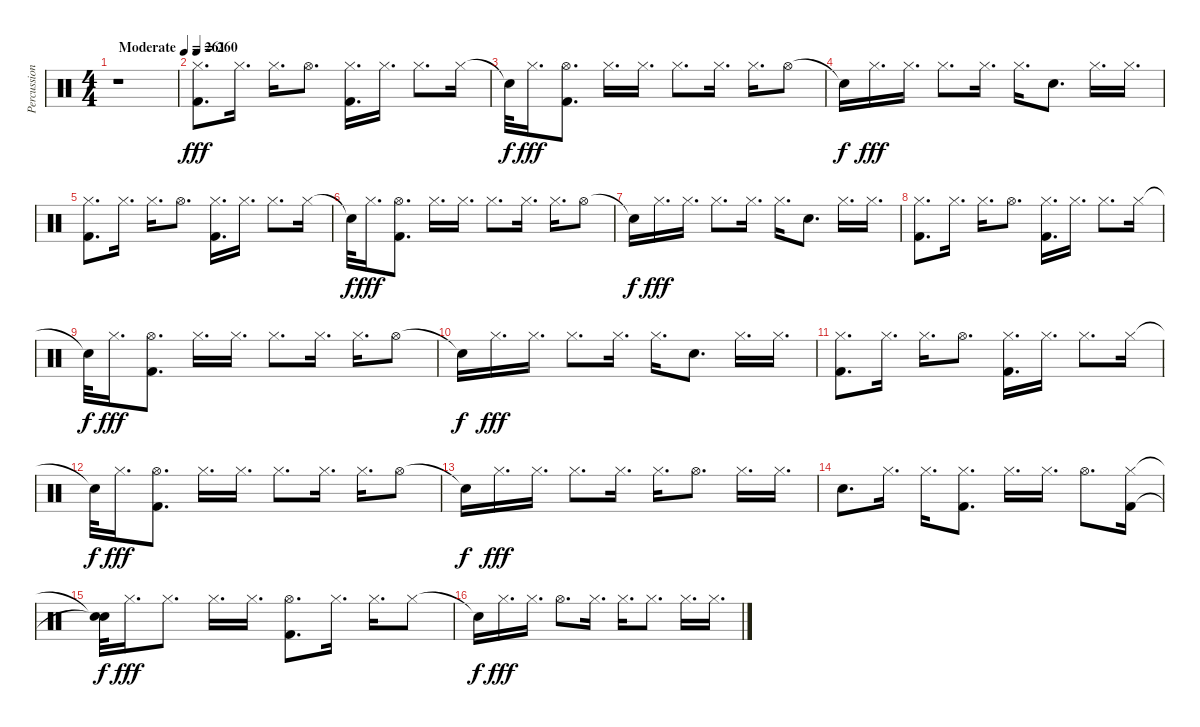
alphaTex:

\track ("Percussion" "Percussion") {instrument percussion}
\staff {score}
\articulation defaults
\ts (4 4)
\tempo (261 "Moderate")
\clef neutral
\ks c
r.1{dy fff} |
\tempo 260
("Hi-Hat (closed)" "Kick (hit) 2").8{d} "Hi-Hat (closed)".16{d} "Hi-Hat (closed)".16{d} "Hi-Hat (open)".8{d} ("Hi-Hat (closed)" "Kick (hit) 2").16{d} "Hi-Hat (closed)".16{d} "Hi-Hat (closed)".8{d} "Hi-Hat (closed)".16 |
"Snare (hit)"{t}.32{dy f} "Hi-Hat (closed)".16{d dy fff} ("Hi-Hat (open)" "Kick (hit) 2").8{d} "Hi-Hat (closed)".16{d} "Hi-Hat (closed)".16{d} "Hi-Hat (closed)".8{d} "Hi-Hat (closed)".16{d} "Hi-Hat (closed)".16{d} "Hi-Hat (open)".8 |
"Snare (hit)"{t}.16{dy f} "Hi-Hat (closed)".16{d dy fff} "Hi-Hat (closed)".16{d} "Hi-Hat (closed)".8{d} "Hi-Hat (closed)".16{d} "Hi-Hat (closed)".16{d} "Electric Snare (hit)".8{d} "Hi-Hat (closed)".16{d} "Hi-Hat (closed)".16{d} |
("Hi-Hat (closed)" "Kick (hit) 2").8{d} "Hi-Hat (closed)".16{d} "Hi-Hat (closed)".16{d} "Hi-Hat (open)".8{d} ("Hi-Hat (closed)" "Kick (hit) 2").16{d} "Hi-Hat (closed)".16{d} "Hi-Hat (closed)".8{d} "Hi-Hat (closed)".16 |
"Snare (hit)"{t}.32{dy f} "Hi-Hat (closed)".16{d dy fff} ("Hi-Hat (open)" "Kick (hit) 2").8{d} "Hi-Hat (closed)".16{d} "Hi-Hat (closed)".16{d} "Hi-Hat (closed)".8{d} "Hi-Hat (closed)".16{d} "Hi-Hat (closed)".16{d} "Hi-Hat (open)".8 |
"Snare (hit)"{t}.16{dy f} "Hi-Hat (closed)".16{d dy fff} "Hi-Hat (closed)".16{d} "Hi-Hat (closed)".8{d} "Hi-Hat (closed)".16{d} "Hi-Hat (closed)".16{d} "Electric Snare (hit)".8{d} "Hi-Hat (closed)".16{d} "Hi-Hat (closed)".16{d} |
("Hi-Hat (closed)" "Kick (hit) 2").8{d} "Hi-Hat (closed)".16{d} "Hi-Hat (closed)".16{d} "Hi-Hat (open)".8{d} ("Hi-Hat (closed)" "Kick (hit) 2").16{d} "Hi-Hat (closed)".16{d} "Hi-Hat (closed)".8{d} "Hi-Hat (closed)".16 |
"Snare (hit)"{t}.32{dy f} "Hi-Hat (closed)".16{d dy fff} ("Hi-Hat (open)" "Kick (hit) 2").8{d} "Hi-Hat (closed)".16{d} "Hi-Hat (closed)".16{d} "Hi-Hat (closed)".8{d} "Hi-Hat (closed)".16{d} "Hi-Hat (closed)".16{d} "Hi-Hat (open)".8 |
"Snare (hit)"{t}.16{dy f} "Hi-Hat (closed)".16{d dy fff} "Hi-Hat (closed)".16{d} "Hi-Hat (closed)".8{d} "Hi-Hat (closed)".16{d} "Hi-Hat (closed)".16{d} "Electric Snare (hit)".8{d} "Hi-Hat (closed)".16{d} "Hi-Hat (closed)".16{d} |
("Hi-Hat (closed)" "Kick (hit) 2").8{d} "Hi-Hat (closed)".16{d} "Hi-Hat (closed)".16{d} "Hi-Hat (open)".8{d} ("Hi-Hat (closed)" "Kick (hit) 2").16{d} "Hi-Hat (closed)".16{d} "Hi-Hat (closed)".8{d} "Hi-Hat (closed)".16 |
"Snare (hit)"{t}.32{dy f} "Hi-Hat (closed)".16{d dy fff} ("Hi-Hat (open)" "Kick (hit) 2").8{d} "Hi-Hat (closed)".16{d} "Hi-Hat (closed)".16{d} "Hi-Hat (closed)".8{d} "Hi-Hat (closed)".16{d} "Hi-Hat (closed)".16{d} "Hi-Hat (open)".8 |
"Snare (hit)"{t}.16{dy f} "Hi-Hat (closed)".16{d dy fff} "Hi-Hat (closed)".16{d} "Hi-Hat (closed)".8{d} "Hi-Hat (closed)".16{d} "Hi-Hat (closed)".16{d} "Hi-Hat (open)".8{d} "Hi-Hat (closed)".16{d} "Hi-Hat (closed)".16{d} |
"Electric Snare (hit)".8{d} "Hi-Hat (closed)".16{d} "Hi-Hat (closed)".16{d} ("Hi-Hat (closed)" "Kick (hit) 2").8{d} "Hi-Hat (closed)".16{d} "Hi-Hat (closed)".16{d} "Hi-Hat (open)".8{d} ("Hi-Hat (closed)" "Kick (hit) 2").16 |
("Snare (hit)"{t} "Snare (hit)"{t}).32{dy f} "Hi-Hat (closed)".16{d dy fff} "Hi-Hat (closed)".8{d} "Hi-Hat (closed)".16{d} "Hi-Hat (closed)".16{d} ("Hi-Hat (open)" "Kick (hit) 2").8{d} "Hi-Hat (closed)".16{d} "Hi-Hat (closed)".16{d} "Hi-Hat (closed)".8 |
"Snare (hit)"{t}.16{dy f} "Hi-Hat (closed)".16{d dy fff} "Hi-Hat (closed)".16{d} "Hi-Hat (open)".8{d} "Hi-Hat (closed)".16{d} "Hi-Hat (closed)".16{d} "Hi-Hat (closed)".8{d} "Hi-Hat (closed)".16{d} "Hi-Hat (closed)".16{d}
